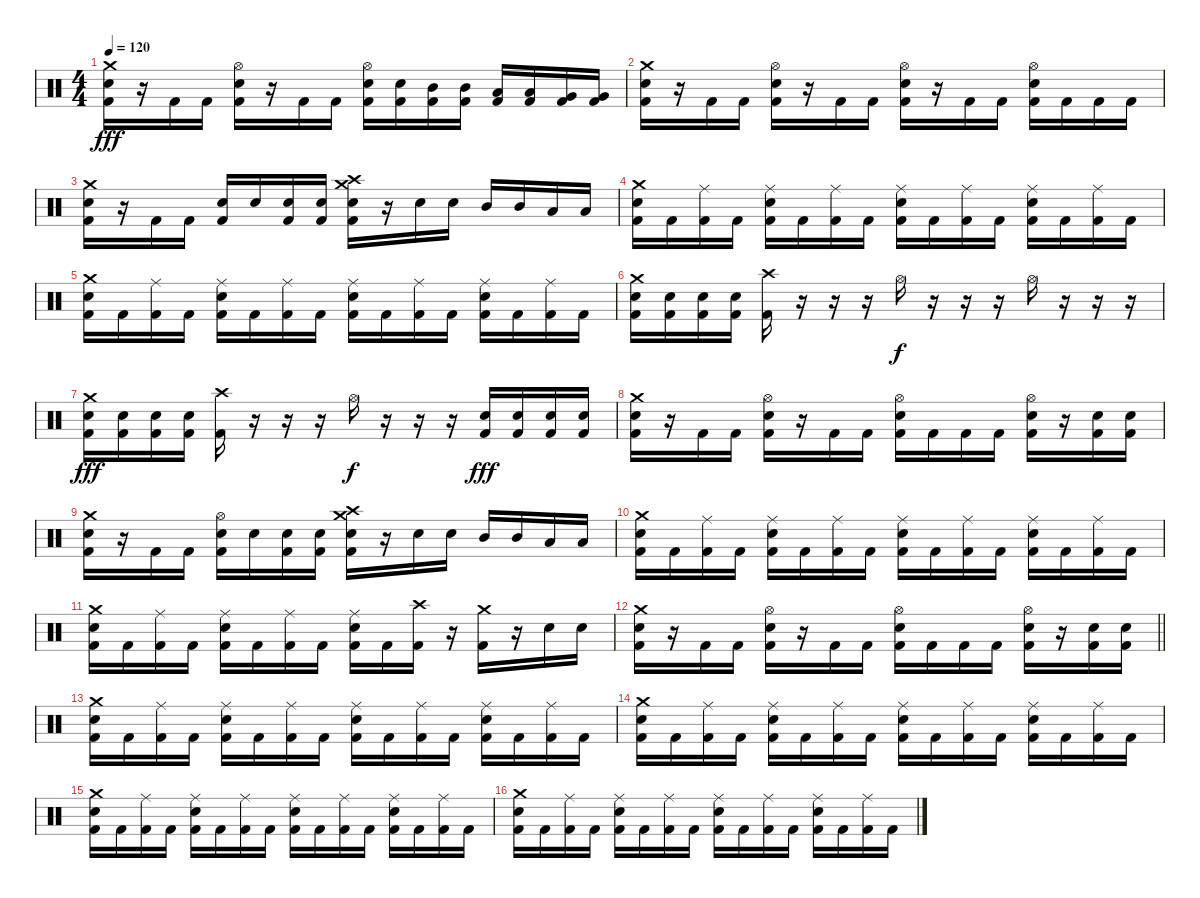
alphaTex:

\track "" {instrument percussion}
\staff {score}
\articulation defaults
\ts (4 4)
\tempo 120
\clef neutral
\ks c
("Crash medium (hit)" "Snare (hit) 2" "Kick (hit) 2").16{dy fff} r.16 "Kick (hit) 2".16 "Kick (hit) 2".16 ("Hi-Hat (open)" "Snare (hit) 2" "Kick (hit) 2").16 r.16 "Kick (hit) 2".16 "Kick (hit) 2".16 ("Hi-Hat (open)" "Snare (hit) 2" "Kick (hit) 2").16 ("Snare (hit) 2" "Kick (hit) 2").16 ("Mid Tom (hit)" "Kick (hit) 2").16 ("Mid Tom (hit)" "Kick (hit) 2").16 ("Low Tom (hit)" "Kick (hit) 2").16 ("Low Tom (hit)" "Kick (hit) 2").16 ("Very Low Tom (hit)" "Kick (hit) 2").16 ("Very Low Tom (hit)" "Kick (hit) 2").16 |
("Crash medium (hit)" "Snare (hit) 2" "Kick (hit) 2").16 r.16 "Kick (hit) 2".16 "Kick (hit) 2".16 ("Hi-Hat (open)" "Snare (hit) 2" "Kick (hit) 2").16 r.16 "Kick (hit) 2".16 "Kick (hit) 2".16 ("Hi-Hat (open)" "Snare (hit) 2" "Kick (hit) 2").16 r.16 "Kick (hit) 2".16 "Kick (hit) 2".16 ("Hi-Hat (open)" "Snare (hit) 2" "Kick (hit) 2").16 "Kick (hit) 2".16 "Kick (hit) 2".16 "Kick (hit) 2".16 |
("Crash medium (hit)" "Snare (hit) 2" "Kick (hit) 2").16 r.16 "Kick (hit) 2".16 "Kick (hit) 2".16 ("Snare (hit) 2" "Kick (hit) 2").16 "Snare (hit) 2".16 ("Snare (hit) 2" "Kick (hit) 2").16 ("Snare (hit) 2" "Kick (hit) 2").16 ("Crash medium (hit)" "Crash high (hit)" "Snare (hit) 2" "Kick (hit) 2").16 r.16 "Snare (hit) 2".16 "Snare (hit) 2".16 "Mid Tom (hit)".16 "Mid Tom (hit)".16 "Low Tom (hit)".16 "Low Tom (hit)".16 |
("Crash medium (hit)" "Snare (hit) 2" "Kick (hit) 2").16 "Kick (hit) 2".16 ("Ride (middle)" "Kick (hit) 2").16 "Kick (hit) 2".16 ("Ride (middle)" "Snare (hit) 2" "Kick (hit) 2").16 "Kick (hit) 2".16 ("Ride (middle)" "Kick (hit) 2").16 "Kick (hit) 2".16 ("Ride (middle)" "Snare (hit) 2" "Kick (hit) 2").16 "Kick (hit) 2".16 ("Ride (middle)" "Kick (hit) 2").16 "Kick (hit) 2".16 ("Ride (middle)" "Snare (hit) 2" "Kick (hit) 2").16 "Kick (hit) 2".16 ("Ride (middle)" "Kick (hit) 2").16 "Kick (hit) 2".16 |
("Crash medium (hit)" "Snare (hit) 2" "Kick (hit) 2").16 "Kick (hit) 2".16 ("Ride (middle)" "Kick (hit) 2").16 "Kick (hit) 2".16 ("Ride (middle)" "Snare (hit) 2" "Kick (hit) 2").16 "Kick (hit) 2".16 ("Ride (middle)" "Kick (hit) 2").16 "Kick (hit) 2".16 ("Ride (middle)" "Snare (hit) 2" "Kick (hit) 2").16 "Kick (hit) 2".16 ("Ride (middle)" "Kick (hit) 2").16 "Kick (hit) 2".16 ("Ride (middle)" "Snare (hit) 2" "Kick (hit) 2").16 "Kick (hit) 2".16 ("Ride (middle)" "Kick (hit) 2").16 "Kick (hit) 2".16 |
("Crash medium (hit)" "Snare (hit) 2" "Kick (hit) 2").16 ("Snare (hit) 2" "Kick (hit) 2").16 ("Snare (hit) 2" "Kick (hit) 2").16 ("Snare (hit) 2" "Kick (hit) 2").16 ("Crash high (hit)" "Kick (hit) 2").16 r.16 r.16 r.16 "Hi-Hat (open)".16{dy f} r.16 r.16 r.16 "Hi-Hat (open)".16 r.16 r.16 r.16 |
("Crash medium (hit)" "Snare (hit) 2" "Kick (hit) 2").16{dy fff} ("Snare (hit) 2" "Kick (hit) 2").16 ("Snare (hit) 2" "Kick (hit) 2").16 ("Snare (hit) 2" "Kick (hit) 2").16 ("Crash high (hit)" "Kick (hit) 2").16 r.16 r.16 r.16 "Hi-Hat (open)".16{dy f} r.16 r.16 r.16 ("Snare (hit) 2" "Kick (hit) 2").16{dy fff} ("Snare (hit) 2" "Kick (hit) 2").16 ("Snare (hit) 2" "Kick (hit) 2").16 ("Snare (hit) 2" "Kick (hit) 2").16 |
("Crash medium (hit)" "Snare (hit) 2" "Kick (hit) 2").16 r.16 "Kick (hit) 2".16 "Kick (hit) 2".16 ("Hi-Hat (open)" "Snare (hit) 2" "Kick (hit) 2").16 r.16 "Kick (hit) 2".16 "Kick (hit) 2".16 ("Hi-Hat (open)" "Snare (hit) 2" "Kick (hit) 2").16 "Kick (hit) 2".16 "Kick (hit) 2".16 "Kick (hit) 2".16 ("Hi-Hat (open)" "Snare (hit) 2" "Kick (hit) 2").16 r.16 ("Snare (hit) 2" "Kick (hit) 2").16 ("Snare (hit) 2" "Kick (hit) 2").16 |
("Crash medium (hit)" "Snare (hit) 2" "Kick (hit) 2").16 r.16 "Kick (hit) 2".16 "Kick (hit) 2".16 ("Hi-Hat (open)" "Snare (hit) 2" "Kick (hit) 2").16 "Snare (hit) 2".16 ("Snare (hit) 2" "Kick (hit) 2").16 ("Snare (hit) 2" "Kick (hit) 2").16 ("Crash medium (hit)" "Crash high (hit)" "Snare (hit) 2" "Kick (hit) 2").16 r.16 "Snare (hit) 2".16 "Snare (hit) 2".16 "Mid Tom (hit)".16 "Mid Tom (hit)".16 "Low Tom (hit)".16 "Low Tom (hit)".16 |
("Crash medium (hit)" "Snare (hit) 2" "Kick (hit) 2").16 "Kick (hit) 2".16 ("Ride (middle)" "Kick (hit) 2").16 "Kick (hit) 2".16 ("Ride (middle)" "Snare (hit) 2" "Kick (hit) 2").16 "Kick (hit) 2".16 ("Ride (middle)" "Kick (hit) 2").16 "Kick (hit) 2".16 ("Ride (middle)" "Snare (hit) 2" "Kick (hit) 2").16 "Kick (hit) 2".16 ("Ride (middle)" "Kick (hit) 2").16 "Kick (hit) 2".16 ("Ride (middle)" "Snare (hit) 2" "Kick (hit) 2").16 "Kick (hit) 2".16 ("Ride (middle)" "Kick (hit) 2").16 "Kick (hit) 2".16 |
("Crash medium (hit)" "Snare (hit) 2" "Kick (hit) 2").16 "Kick (hit) 2".16 ("Ride (middle)" "Kick (hit) 2").16 "Kick (hit) 2".16 ("Ride (middle)" "Snare (hit) 2" "Kick (hit) 2").16 "Kick (hit) 2".16 ("Ride (middle)" "Kick (hit) 2").16 "Kick (hit) 2".16 ("Ride (middle)" "Snare (hit) 2" "Kick (hit) 2").16 "Kick (hit) 2".16 ("Crash high (hit)" "Kick (hit) 2").16 r.16 ("Crash medium (hit)" "Kick (hit) 2").16 r.16 "Snare (hit) 2".16 "Snare (hit) 2".16 |
\barLineRight lightlight
("Crash medium (hit)" "Snare (hit) 2" "Kick (hit) 2").16 r.16 "Kick (hit) 2".16 "Kick (hit) 2".16 ("Hi-Hat (open)" "Snare (hit) 2" "Kick (hit) 2").16 r.16 "Kick (hit) 2".16 "Kick (hit) 2".16 ("Hi-Hat (open)" "Snare (hit) 2" "Kick (hit) 2").16 "Kick (hit) 2".16 "Kick (hit) 2".16 "Kick (hit) 2".16 ("Hi-Hat (open)" "Snare (hit) 2" "Kick (hit) 2").16 r.16 ("Snare (hit) 2" "Kick (hit) 2").16 ("Snare (hit) 2" "Kick (hit) 2").16 |
("Crash medium (hit)" "Snare (hit) 2" "Kick (hit) 2").16 "Kick (hit) 2".16 ("Ride (middle)" "Kick (hit) 2").16 "Kick (hit) 2".16 ("Ride (middle)" "Snare (hit) 2" "Kick (hit) 2").16 "Kick (hit) 2".16 ("Ride (middle)" "Kick (hit) 2").16 "Kick (hit) 2".16 ("Ride (middle)" "Snare (hit) 2" "Kick (hit) 2").16 "Kick (hit) 2".16 ("Ride (middle)" "Kick (hit) 2").16 "Kick (hit) 2".16 ("Ride (middle)" "Snare (hit) 2" "Kick (hit) 2").16 "Kick (hit) 2".16 ("Ride (middle)" "Kick (hit) 2").16 "Kick (hit) 2".16 |
("Crash medium (hit)" "Snare (hit) 2" "Kick (hit) 2").16 "Kick (hit) 2".16 ("Ride (middle)" "Kick (hit) 2").16 "Kick (hit) 2".16 ("Ride (middle)" "Snare (hit) 2" "Kick (hit) 2").16 "Kick (hit) 2".16 ("Ride (middle)" "Kick (hit) 2").16 "Kick (hit) 2".16 ("Ride (middle)" "Snare (hit) 2" "Kick (hit) 2").16 "Kick (hit) 2".16 ("Ride (middle)" "Kick (hit) 2").16 "Kick (hit) 2".16 ("Ride (middle)" "Snare (hit) 2" "Kick (hit) 2").16 "Kick (hit) 2".16 ("Ride (middle)" "Kick (hit) 2").16 "Kick (hit) 2".16 |
("Crash medium (hit)" "Snare (hit) 2" "Kick (hit) 2").16 "Kick (hit) 2".16 ("Ride (middle)" "Kick (hit) 2").16 "Kick (hit) 2".16 ("Ride (middle)" "Snare (hit) 2" "Kick (hit) 2").16 "Kick (hit) 2".16 ("Ride (middle)" "Kick (hit) 2").16 "Kick (hit) 2".16 ("Ride (middle)" "Snare (hit) 2" "Kick (hit) 2").16 "Kick (hit) 2".16 ("Ride (middle)" "Kick (hit) 2").16 "Kick (hit) 2".16 ("Ride (middle)" "Snare (hit) 2" "Kick (hit) 2").16 "Kick (hit) 2".16 ("Ride (middle)" "Kick (hit) 2").16 "Kick (hit) 2".16 |
("Crash medium (hit)" "Snare (hit) 2" "Kick (hit) 2").16 "Kick (hit) 2".16 ("Ride (middle)" "Kick (hit) 2").16 "Kick (hit) 2".16 ("Ride (middle)" "Snare (hit) 2" "Kick (hit) 2").16 "Kick (hit) 2".16 ("Ride (middle)" "Kick (hit) 2").16 "Kick (hit) 2".16 ("Ride (middle)" "Snare (hit) 2" "Kick (hit) 2").16 "Kick (hit) 2".16 ("Ride (middle)" "Kick (hit) 2").16 "Kick (hit) 2".16 ("Ride (middle)" "Snare (hit) 2" "Kick (hit) 2").16 "Kick (hit) 2".16 ("Ride (middle)" "Kick (hit) 2").16 "Kick (hit) 2".16
